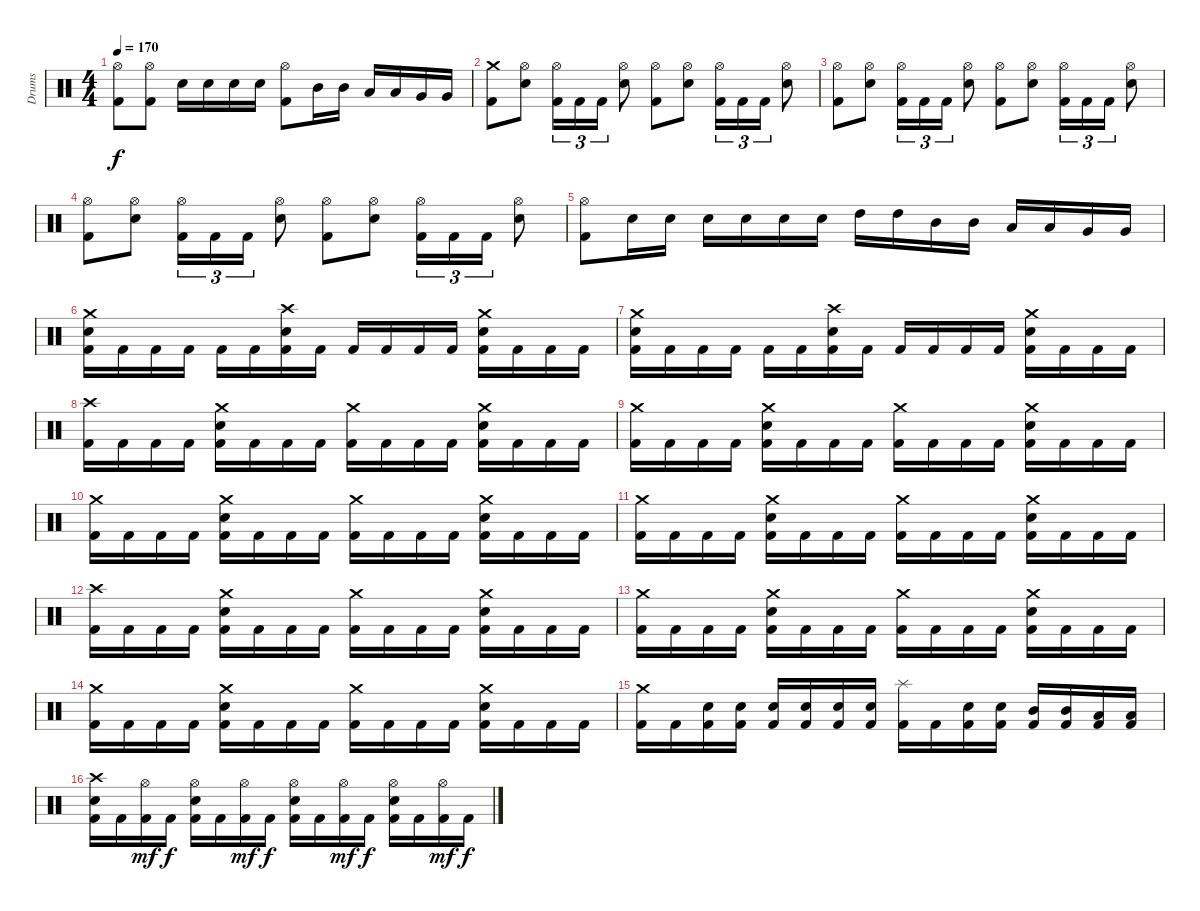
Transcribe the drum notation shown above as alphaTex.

\track ("Drums" "Drums") {instrument percussion}
\staff {score}
\articulation defaults
\ts (4 4)
\tempo 170
\clef neutral
\ks c
("Kick (hit) 2" "Hi-Hat (open)").8{dy f} ("Kick (hit) 2" "Hi-Hat (open)").8 "Electric Snare (hit)".16 "Electric Snare (hit)".16 "Electric Snare (hit)".16 "Electric Snare (hit)".16 ("Kick (hit) 2" "Hi-Hat (open)").8 "Mid Tom (hit)".16 "Mid Tom (hit)".16 "Low Tom (hit)".16 "Low Tom (hit)".16 "Very Low Tom (hit)".16 "Very Low Tom (hit)".16 |
("Kick (hit) 2" "Crash medium (hit)").8 ("Electric Snare (hit)" "Hi-Hat (open)").8 ("Kick (hit) 2" "Hi-Hat (open)").16{tu (3 2)} "Kick (hit) 2".16{tu (3 2)} "Kick (hit) 2".16{tu (3 2)} ("Electric Snare (hit)" "Hi-Hat (open)").8 ("Kick (hit) 2" "Hi-Hat (open)").8 ("Electric Snare (hit)" "Hi-Hat (open)").8 ("Kick (hit) 2" "Hi-Hat (open)").16{tu (3 2)} "Kick (hit) 2".16{tu (3 2)} "Kick (hit) 2".16{tu (3 2)} ("Electric Snare (hit)" "Hi-Hat (open)").8 |
("Kick (hit) 2" "Hi-Hat (open)").8 ("Electric Snare (hit)" "Hi-Hat (open)").8 ("Kick (hit) 2" "Hi-Hat (open)").16{tu (3 2)} "Kick (hit) 2".16{tu (3 2)} "Kick (hit) 2".16{tu (3 2)} ("Electric Snare (hit)" "Hi-Hat (open)").8 ("Kick (hit) 2" "Hi-Hat (open)").8 ("Electric Snare (hit)" "Hi-Hat (open)").8 ("Kick (hit) 2" "Hi-Hat (open)").16{tu (3 2)} "Kick (hit) 2".16{tu (3 2)} "Kick (hit) 2".16{tu (3 2)} ("Electric Snare (hit)" "Hi-Hat (open)").8 |
("Kick (hit) 2" "Hi-Hat (open)").8 ("Electric Snare (hit)" "Hi-Hat (open)").8 ("Kick (hit) 2" "Hi-Hat (open)").16{tu (3 2)} "Kick (hit) 2".16{tu (3 2)} "Kick (hit) 2".16{tu (3 2)} ("Electric Snare (hit)" "Hi-Hat (open)").8 ("Kick (hit) 2" "Hi-Hat (open)").8 ("Electric Snare (hit)" "Hi-Hat (open)").8 ("Kick (hit) 2" "Hi-Hat (open)").16{tu (3 2)} "Kick (hit) 2".16{tu (3 2)} "Kick (hit) 2".16{tu (3 2)} ("Electric Snare (hit)" "Hi-Hat (open)").8 |
("Kick (hit) 2" "Hi-Hat (open)").8 "Electric Snare (hit)".16 "Electric Snare (hit)".16 "Electric Snare (hit)".16 "Electric Snare (hit)".16 "Electric Snare (hit)".16 "Electric Snare (hit)".16 "High Tom (hit)".16 "High Tom (hit)".16 "Mid Tom (hit)".16 "Mid Tom (hit)".16 "Low Tom (hit)".16 "Low Tom (hit)".16 "Very Low Tom (hit)".16 "Very Low Tom (hit)".16 |
("Kick (hit) 2" "Electric Snare (hit)" "Crash medium (hit)").16 "Kick (hit) 2".16 "Kick (hit) 2".16 "Kick (hit) 2".16 "Kick (hit) 2".16 "Kick (hit) 2".16 ("Kick (hit) 2" "Electric Snare (hit)" "Crash high (hit)").16 "Kick (hit) 2".16 "Kick (hit) 2".16 "Kick (hit) 2".16 "Kick (hit) 2".16 "Kick (hit) 2".16 ("Kick (hit) 2" "Electric Snare (hit)" "Crash medium (hit)").16 "Kick (hit) 2".16 "Kick (hit) 2".16 "Kick (hit) 2".16 |
("Kick (hit) 2" "Electric Snare (hit)" "Crash medium (hit)").16 "Kick (hit) 2".16 "Kick (hit) 2".16 "Kick (hit) 2".16 "Kick (hit) 2".16 "Kick (hit) 2".16 ("Kick (hit) 2" "Electric Snare (hit)" "Crash high (hit)").16 "Kick (hit) 2".16 "Kick (hit) 2".16 "Kick (hit) 2".16 "Kick (hit) 2".16 "Kick (hit) 2".16 ("Kick (hit) 2" "Electric Snare (hit)" "Crash medium (hit)").16 "Kick (hit) 2".16 "Kick (hit) 2".16 "Kick (hit) 2".16 |
("Kick (hit) 2" "Crash high (hit)").16 "Kick (hit) 2".16 "Kick (hit) 2".16 "Kick (hit) 2".16 ("Kick (hit) 2" "Electric Snare (hit)" "Crash medium (hit)").16 "Kick (hit) 2".16 "Kick (hit) 2".16 "Kick (hit) 2".16 ("Kick (hit) 2" "Crash medium (hit)").16 "Kick (hit) 2".16 "Kick (hit) 2".16 "Kick (hit) 2".16 ("Kick (hit) 2" "Electric Snare (hit)" "Crash medium (hit)").16 "Kick (hit) 2".16 "Kick (hit) 2".16 "Kick (hit) 2".16 |
("Kick (hit) 2" "Crash medium (hit)").16 "Kick (hit) 2".16 "Kick (hit) 2".16 "Kick (hit) 2".16 ("Kick (hit) 2" "Electric Snare (hit)" "Crash medium (hit)").16 "Kick (hit) 2".16 "Kick (hit) 2".16 "Kick (hit) 2".16 ("Kick (hit) 2" "Crash medium (hit)").16 "Kick (hit) 2".16 "Kick (hit) 2".16 "Kick (hit) 2".16 ("Kick (hit) 2" "Electric Snare (hit)" "Crash medium (hit)").16 "Kick (hit) 2".16 "Kick (hit) 2".16 "Kick (hit) 2".16 |
("Kick (hit) 2" "Crash medium (hit)").16 "Kick (hit) 2".16 "Kick (hit) 2".16 "Kick (hit) 2".16 ("Kick (hit) 2" "Electric Snare (hit)" "Crash medium (hit)").16 "Kick (hit) 2".16 "Kick (hit) 2".16 "Kick (hit) 2".16 ("Kick (hit) 2" "Crash medium (hit)").16 "Kick (hit) 2".16 "Kick (hit) 2".16 "Kick (hit) 2".16 ("Kick (hit) 2" "Electric Snare (hit)" "Crash medium (hit)").16 "Kick (hit) 2".16 "Kick (hit) 2".16 "Kick (hit) 2".16 |
("Kick (hit) 2" "Crash medium (hit)").16 "Kick (hit) 2".16 "Kick (hit) 2".16 "Kick (hit) 2".16 ("Kick (hit) 2" "Electric Snare (hit)" "Crash medium (hit)").16 "Kick (hit) 2".16 "Kick (hit) 2".16 "Kick (hit) 2".16 ("Kick (hit) 2" "Crash medium (hit)").16 "Kick (hit) 2".16 "Kick (hit) 2".16 "Kick (hit) 2".16 ("Kick (hit) 2" "Electric Snare (hit)" "Crash medium (hit)").16 "Kick (hit) 2".16 "Kick (hit) 2".16 "Kick (hit) 2".16 |
("Kick (hit) 2" "Crash high (hit)").16 "Kick (hit) 2".16 "Kick (hit) 2".16 "Kick (hit) 2".16 ("Kick (hit) 2" "Electric Snare (hit)" "Crash medium (hit)").16 "Kick (hit) 2".16 "Kick (hit) 2".16 "Kick (hit) 2".16 ("Kick (hit) 2" "Crash medium (hit)").16 "Kick (hit) 2".16 "Kick (hit) 2".16 "Kick (hit) 2".16 ("Kick (hit) 2" "Electric Snare (hit)" "Crash medium (hit)").16 "Kick (hit) 2".16 "Kick (hit) 2".16 "Kick (hit) 2".16 |
("Kick (hit) 2" "Crash medium (hit)").16 "Kick (hit) 2".16 "Kick (hit) 2".16 "Kick (hit) 2".16 ("Kick (hit) 2" "Electric Snare (hit)" "Crash medium (hit)").16 "Kick (hit) 2".16 "Kick (hit) 2".16 "Kick (hit) 2".16 ("Kick (hit) 2" "Crash medium (hit)").16 "Kick (hit) 2".16 "Kick (hit) 2".16 "Kick (hit) 2".16 ("Kick (hit) 2" "Electric Snare (hit)" "Crash medium (hit)").16 "Kick (hit) 2".16 "Kick (hit) 2".16 "Kick (hit) 2".16 |
("Kick (hit) 2" "Crash medium (hit)").16 "Kick (hit) 2".16 "Kick (hit) 2".16 "Kick (hit) 2".16 ("Kick (hit) 2" "Electric Snare (hit)" "Crash medium (hit)").16 "Kick (hit) 2".16 "Kick (hit) 2".16 "Kick (hit) 2".16 ("Kick (hit) 2" "Crash medium (hit)").16 "Kick (hit) 2".16 "Kick (hit) 2".16 "Kick (hit) 2".16 ("Kick (hit) 2" "Electric Snare (hit)" "Crash medium (hit)").16 "Kick (hit) 2".16 "Kick (hit) 2".16 "Kick (hit) 2".16 |
("Kick (hit) 2" "Crash medium (hit)").16 "Kick (hit) 2".16 ("Kick (hit) 2" "Electric Snare (hit)").16 ("Kick (hit) 2" "Electric Snare (hit)").16 ("Kick (hit) 2" "Electric Snare (hit)").16 ("Kick (hit) 2" "Electric Snare (hit)").16 ("Kick (hit) 2" "Electric Snare (hit)").16 ("Kick (hit) 2" "Electric Snare (hit)").16 ("Kick (hit) 2" "Splash (hit)").16 "Kick (hit) 2".16 ("Kick (hit) 2" "Electric Snare (hit)").16 ("Kick (hit) 2" "Electric Snare (hit)").16 ("Kick (hit) 2" "Mid Tom (hit)").16 ("Kick (hit) 2" "Mid Tom (hit)").16 ("Kick (hit) 2" "Low Tom (hit)").16 ("Kick (hit) 2" "Low Tom (hit)").16 |
("Kick (hit) 2" "Electric Snare (hit)" "Crash high (hit)").16 "Kick (hit) 2".16 ("Kick (hit) 2" "Hi-Hat (open)").16{dy mf} "Kick (hit) 2".16{dy f} ("Kick (hit) 2" "Electric Snare (hit)" "Hi-Hat (open)").16 "Kick (hit) 2".16 ("Kick (hit) 2" "Hi-Hat (open)").16{dy mf} "Kick (hit) 2".16{dy f} ("Kick (hit) 2" "Electric Snare (hit)" "Hi-Hat (open)").16 "Kick (hit) 2".16 ("Kick (hit) 2" "Hi-Hat (open)").16{dy mf} "Kick (hit) 2".16{dy f} ("Kick (hit) 2" "Electric Snare (hit)" "Hi-Hat (open)").16 "Kick (hit) 2".16 ("Kick (hit) 2" "Hi-Hat (open)").16{dy mf} "Kick (hit) 2".16{dy f}
